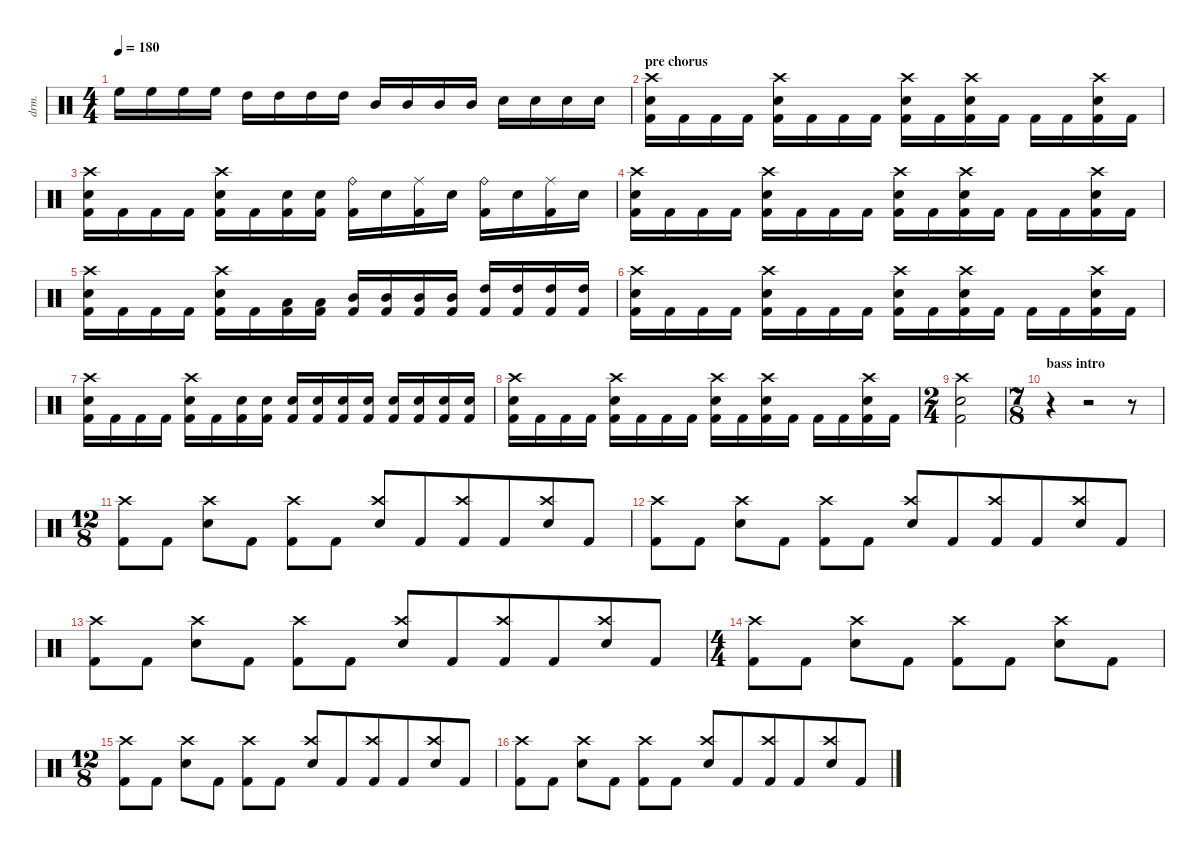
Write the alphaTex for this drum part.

\defaultSystemsLayout 4
\hideDynamics
\bracketExtendMode nobrackets
\otherSystemsTrackNameOrientation horizontal
\track ("Joosep" "drm.") {mute instrument percussion}
\staff {score}
\articulation defaults
\ts (4 4)
\tempo 180
\clef neutral
\ks c "High Floor Tom (hit)".16{dy f beam Down} "High Floor Tom (hit)".16{beam Down} "High Floor Tom (hit)".16{beam Down} "High Floor Tom (hit)".16{beam Down} "High Tom (hit)".16{beam Down} "High Tom (hit)".16{beam Down} "High Tom (hit)".16{beam Down} "High Tom (hit)".16{beam Down} "Mid Tom (hit)".16{beam Up} "Mid Tom (hit)".16{beam Up} "Mid Tom (hit)".16{beam Up} "Mid Tom (hit)".16{beam Up} "Snare (hit) 2".16{beam Down} "Snare (hit) 2".16{beam Down} "Snare (hit) 2".16{beam Down} "Snare (hit) 2".16{beam Down}
|
\section ("" "pre chorus")
("Crash high (hit)" "Snare (hit) 2" "Kick (hit) 2").16{beam Down} "Kick (hit) 2".16{beam Down} "Kick (hit) 2".16{beam Down} "Kick (hit) 2".16{beam Down} ("Crash high (hit)" "Snare (hit) 2" "Kick (hit) 2").16{beam Down} "Kick (hit) 2".16{beam Down} "Kick (hit) 2".16{beam Down} "Kick (hit) 2".16{beam Down} ("Crash high (hit)" "Snare (hit) 2" "Kick (hit) 2").16{beam Down} "Kick (hit) 2".16{beam Down} ("Crash high (hit)" "Snare (hit) 2" "Kick (hit) 2").16{beam Down} "Kick (hit) 2".16{beam Down} "Kick (hit) 2".16{beam Down} "Kick (hit) 2".16{beam Down} ("Crash high (hit)" "Snare (hit) 2" "Kick (hit) 2").16{beam Down} "Kick (hit) 2".16{beam Down} |
("Crash high (hit)" "Snare (hit) 2" "Kick (hit) 2").16{beam Down} "Kick (hit) 2".16{beam Down} "Kick (hit) 2".16{beam Down} "Kick (hit) 2".16{beam Down} ("Crash high (hit)" "Snare (hit) 2" "Kick (hit) 2").16{beam Down} "Kick (hit) 2".16{beam Down} ("Snare (hit) 2" "Kick (hit) 2").16{beam Down} ("Snare (hit) 2" "Kick (hit) 2").16{beam Down} ("Ride (bell)" "Kick (hit) 2").16{beam Down} "Snare (hit) 2".16{beam Down} ("Kick (hit) 2" "Ride (middle)").16{beam Down} "Snare (hit) 2".16{beam Down} ("Kick (hit) 2" "Ride (bell)").16{beam Down} "Snare (hit) 2".16{beam Down} ("Kick (hit) 2" "Ride (middle)").16{beam Down} "Snare (hit) 2".16{beam Down} |
("Crash high (hit)" "Snare (hit) 2" "Kick (hit) 2").16{beam Down} "Kick (hit) 2".16{beam Down} "Kick (hit) 2".16{beam Down} "Kick (hit) 2".16{beam Down} ("Crash high (hit)" "Snare (hit) 2" "Kick (hit) 2").16{beam Down} "Kick (hit) 2".16{beam Down} "Kick (hit) 2".16{beam Down} "Kick (hit) 2".16{beam Down} ("Crash high (hit)" "Snare (hit) 2" "Kick (hit) 2").16{beam Down} "Kick (hit) 2".16{beam Down} ("Crash high (hit)" "Snare (hit) 2" "Kick (hit) 2").16{beam Down} "Kick (hit) 2".16{beam Down} "Kick (hit) 2".16{beam Down} "Kick (hit) 2".16{beam Down} ("Crash high (hit)" "Snare (hit) 2" "Kick (hit) 2").16{beam Down} "Kick (hit) 2".16{beam Down} |
("Crash high (hit)" "Snare (hit) 2" "Kick (hit) 2").16{beam Down} "Kick (hit) 2".16{beam Down} "Kick (hit) 2".16{beam Down} "Kick (hit) 2".16{beam Down} ("Crash high (hit)" "Snare (hit) 2" "Kick (hit) 2").16{beam Down} "Kick (hit) 2".16{beam Down} ("Low Tom (hit)" "Kick (hit) 2").16{beam Down} ("Low Tom (hit)" "Kick (hit) 2").16{beam Down} ("Mid Tom (hit)" "Kick (hit) 2").16{beam Up} ("Mid Tom (hit)" "Kick (hit) 2").16{beam Up} ("Mid Tom (hit)" "Kick (hit) 2").16{beam Up} ("Mid Tom (hit)" "Kick (hit) 2").16{beam Up} ("High Tom (hit)" "Kick (hit) 2").16{beam Up} ("High Tom (hit)" "Kick (hit) 2").16{beam Up} ("High Tom (hit)" "Kick (hit) 2").16{beam Up} ("High Tom (hit)" "Kick (hit) 2").16{beam Up} |
("Crash high (hit)" "Snare (hit) 2" "Kick (hit) 2").16{beam Down} "Kick (hit) 2".16{beam Down} "Kick (hit) 2".16{beam Down} "Kick (hit) 2".16{beam Down} ("Crash high (hit)" "Snare (hit) 2" "Kick (hit) 2").16{beam Down} "Kick (hit) 2".16{beam Down} "Kick (hit) 2".16{beam Down} "Kick (hit) 2".16{beam Down} ("Crash high (hit)" "Snare (hit) 2" "Kick (hit) 2").16{beam Down} "Kick (hit) 2".16{beam Down} ("Crash high (hit)" "Snare (hit) 2" "Kick (hit) 2").16{beam Down} "Kick (hit) 2".16{beam Down} "Kick (hit) 2".16{beam Down} "Kick (hit) 2".16{beam Down} ("Crash high (hit)" "Snare (hit) 2" "Kick (hit) 2").16{beam Down} "Kick (hit) 2".16{beam Down} |
("Crash high (hit)" "Snare (hit) 2" "Kick (hit) 2").16{beam Down} "Kick (hit) 2".16{beam Down} "Kick (hit) 2".16{beam Down} "Kick (hit) 2".16{beam Down} ("Crash high (hit)" "Snare (hit) 2" "Kick (hit) 2").16{beam Down} "Kick (hit) 2".16{beam Down} ("Snare (hit) 2" "Kick (hit) 2").16{beam Down} ("Snare (hit) 2" "Kick (hit) 2").16{beam Down} ("Snare (hit) 2" "Kick (hit) 2").16{beam Up} ("Snare (hit) 2" "Kick (hit) 2").16{beam Up} ("Snare (hit) 2" "Kick (hit) 2").16{beam Up} ("Snare (hit) 2" "Kick (hit) 2").16{beam Up} ("Snare (hit) 2" "Kick (hit) 2").16{beam Up} ("Snare (hit) 2" "Kick (hit) 2").16{beam Up} ("Snare (hit) 2" "Kick (hit) 2").16{beam Up} ("Snare (hit) 2" "Kick (hit) 2").16{beam Up} |
("Crash high (hit)" "Snare (hit) 2" "Kick (hit) 2").16{beam Down} "Kick (hit) 2".16{beam Down} "Kick (hit) 2".16{beam Down} "Kick (hit) 2".16{beam Down} ("Crash high (hit)" "Snare (hit) 2" "Kick (hit) 2").16{beam Down} "Kick (hit) 2".16{beam Down} "Kick (hit) 2".16{beam Down} "Kick (hit) 2".16{beam Down} ("Crash high (hit)" "Snare (hit) 2" "Kick (hit) 2").16{beam Down} "Kick (hit) 2".16{beam Down} ("Crash high (hit)" "Snare (hit) 2" "Kick (hit) 2").16{beam Down} "Kick (hit) 2".16{beam Down} "Kick (hit) 2".16{beam Down} "Kick (hit) 2".16{beam Down} ("Crash high (hit)" "Snare (hit) 2" "Kick (hit) 2").16{beam Down} "Kick (hit) 2".16{beam Down} |
\ts (2 4)
\beaming (8 2 2 2 2)
("Crash high (hit)" "Snare (hit) 2" "Kick (hit) 2").2{beam Down} |
\ts (7 8)
\beaming (8 2 2 2 2)
\section ("" "bass intro")
r.4{beam Down} r.2{beam Down} r.8{beam Down} |
\ts (12 8)
\beaming (8 2 2 2 6)
\section ("" "")
("Crash high (hit)" "Kick (hit) 2").8{beam Down} "Kick (hit) 2".8{beam Down} ("Crash high (hit)" "Snare (hit) 2").8{beam Down} "Kick (hit) 2".8{beam Down} ("Crash high (hit)" "Kick (hit) 2").8{beam Down} "Kick (hit) 2".8{beam Down} ("Crash high (hit)" "Snare (hit) 2").8{beam Up} "Kick (hit) 2".8{beam Up} ("Crash high (hit)" "Kick (hit) 2").8{beam Up} "Kick (hit) 2".8{beam Up} ("Crash high (hit)" "Snare (hit) 2").8{beam Up} "Kick (hit) 2".8{beam Up} |
("Crash high (hit)" "Kick (hit) 2").8{beam Down} "Kick (hit) 2".8{beam Down} ("Crash high (hit)" "Snare (hit) 2").8{beam Down} "Kick (hit) 2".8{beam Down} ("Crash high (hit)" "Kick (hit) 2").8{beam Down} "Kick (hit) 2".8{beam Down} ("Crash high (hit)" "Snare (hit) 2").8{beam Up} "Kick (hit) 2".8{beam Up} ("Crash high (hit)" "Kick (hit) 2").8{beam Up} "Kick (hit) 2".8{beam Up} ("Crash high (hit)" "Snare (hit) 2").8{beam Up} "Kick (hit) 2".8{beam Up} |
("Crash high (hit)" "Kick (hit) 2").8{beam Down} "Kick (hit) 2".8{beam Down} ("Crash high (hit)" "Snare (hit) 2").8{beam Down} "Kick (hit) 2".8{beam Down} ("Crash high (hit)" "Kick (hit) 2").8{beam Down} "Kick (hit) 2".8{beam Down} ("Crash high (hit)" "Snare (hit) 2").8{beam Up} "Kick (hit) 2".8{beam Up} ("Crash high (hit)" "Kick (hit) 2").8{beam Up} "Kick (hit) 2".8{beam Up} ("Crash high (hit)" "Snare (hit) 2").8{beam Up} "Kick (hit) 2".8{beam Up} |
\ts (4 4)
\beaming (8 2 2 2 2)
("Crash high (hit)" "Kick (hit) 2").8{beam Down} "Kick (hit) 2".8{beam Down} ("Crash high (hit)" "Snare (hit) 2").8{beam Down} "Kick (hit) 2".8{beam Down} ("Crash high (hit)" "Kick (hit) 2").8{beam Down} "Kick (hit) 2".8{beam Down} ("Crash high (hit)" "Snare (hit) 2").8{beam Down} "Kick (hit) 2".8{beam Down} |
\ts (12 8)
\beaming (8 2 2 2 6)
("Crash high (hit)" "Kick (hit) 2").8{beam Down} "Kick (hit) 2".8{beam Down} ("Crash high (hit)" "Snare (hit) 2").8{beam Down} "Kick (hit) 2".8{beam Down} ("Crash high (hit)" "Kick (hit) 2").8{beam Down} "Kick (hit) 2".8{beam Down} ("Crash high (hit)" "Snare (hit) 2").8{beam Up} "Kick (hit) 2".8{beam Up} ("Crash high (hit)" "Kick (hit) 2").8{beam Up} "Kick (hit) 2".8{beam Up} ("Crash high (hit)" "Snare (hit) 2").8{beam Up} "Kick (hit) 2".8{beam Up} |
("Crash high (hit)" "Kick (hit) 2").8{beam Down} "Kick (hit) 2".8{beam Down} ("Crash high (hit)" "Snare (hit) 2").8{beam Down} "Kick (hit) 2".8{beam Down} ("Crash high (hit)" "Kick (hit) 2").8{beam Down} "Kick (hit) 2".8{beam Down} ("Crash high (hit)" "Snare (hit) 2").8{beam Up} "Kick (hit) 2".8{beam Up} ("Crash high (hit)" "Kick (hit) 2").8{beam Up} "Kick (hit) 2".8{beam Up} ("Crash high (hit)" "Snare (hit) 2").8{beam Up} "Kick (hit) 2".8{beam Up}
